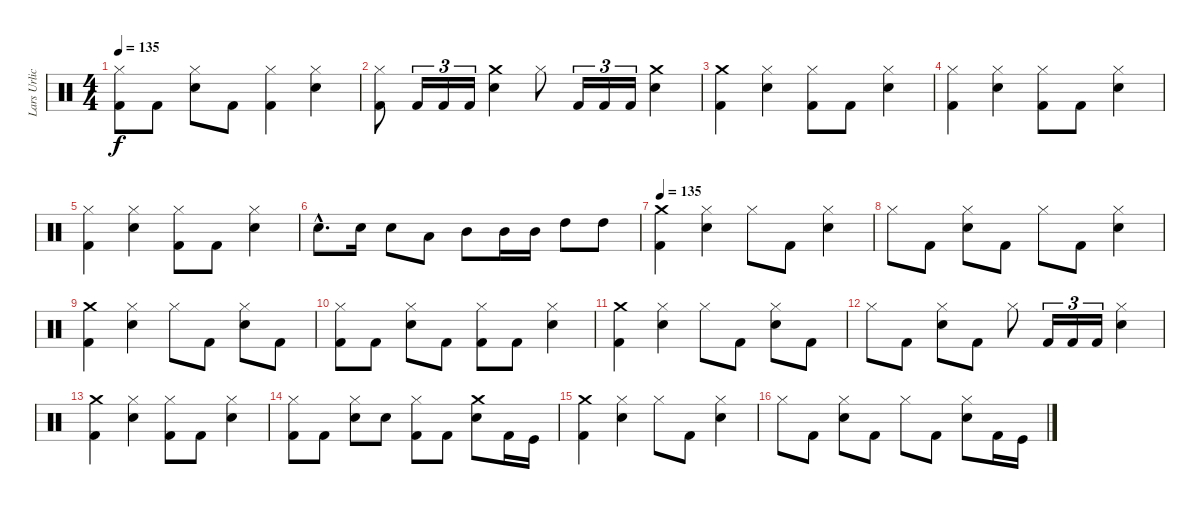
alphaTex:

\track ("Lars Urlich (drums)" "Lars Urlic") {instrument percussion}
\staff {score}
\articulation defaults
\ts (4 4)
\tempo 135
\clef neutral
\ks c
("Kick (hit) 2" "Hi-Hat (closed)").8{dy f} "Kick (hit) 2".8 ("Snare (hit) 2" "Hi-Hat (closed)").8 "Kick (hit) 2".8 ("Kick (hit) 2" "Hi-Hat (closed)").4 ("Snare (hit) 2" "Hi-Hat (closed)").4 |
("Kick (hit) 2" "Hi-Hat (closed)").8 "Kick (hit) 2".16{tu (3 2)} "Kick (hit) 2".16{tu (3 2)} "Kick (hit) 2".16{tu (3 2)} ("Snare (hit) 2" "Crash medium (hit)").4 "Hi-Hat (closed)".8 "Kick (hit) 2".16{tu (3 2)} "Kick (hit) 2".16{tu (3 2)} "Kick (hit) 2".16{tu (3 2)} ("Snare (hit) 2" "Crash medium (hit)").4 |
("Kick (hit) 2" "Crash medium (hit)").4 ("Snare (hit) 2" "Hi-Hat (closed)").4 ("Kick (hit) 2" "Hi-Hat (closed)").8 "Kick (hit) 2".8 ("Snare (hit) 2" "Hi-Hat (closed)").4 |
("Kick (hit) 2" "Hi-Hat (closed)").4 ("Snare (hit) 2" "Hi-Hat (closed)").4 ("Hi-Hat (closed)" "Kick (hit) 2").8 "Kick (hit) 2".8 ("Snare (hit) 2" "Hi-Hat (closed)").4 |
("Kick (hit) 2" "Hi-Hat (closed)").4 ("Snare (hit) 2" "Hi-Hat (closed)").4 ("Hi-Hat (closed)" "Kick (hit) 2").8 "Kick (hit) 2".8 ("Snare (hit) 2" "Hi-Hat (closed)").4 |
"Snare (hit) 2"{hac}.8{d} "Snare (hit) 2".16 "Snare (hit) 2".8 "Low Tom (hit)".8 "Mid Tom (hit)".8 "Mid Tom (hit)".16 "Mid Tom (hit)".16 "High Tom (hit)".8 "High Tom (hit)".8 |
\tempo 135
("Crash medium (hit)" "Kick (hit) 2").4 ("Snare (hit) 2" "Hi-Hat (closed)").4 "Hi-Hat (closed)".8 "Kick (hit) 2".8 ("Snare (hit) 2" "Hi-Hat (closed)").4 |
"Hi-Hat (closed)".8 "Kick (hit) 2".8 ("Snare (hit) 2" "Hi-Hat (closed)").8 "Kick (hit) 2".8 "Hi-Hat (closed)".8 "Kick (hit) 2".8 ("Snare (hit) 2" "Hi-Hat (closed)").4 |
("Kick (hit) 2" "Crash medium (hit)").4 ("Snare (hit) 2" "Hi-Hat (closed)").4 "Hi-Hat (closed)".8 "Kick (hit) 2".8 ("Snare (hit) 2" "Hi-Hat (closed)").8 "Kick (hit) 2".8 |
("Kick (hit) 2" "Hi-Hat (closed)").8 "Kick (hit) 2".8 ("Snare (hit) 2" "Hi-Hat (closed)").8 "Kick (hit) 2".8 ("Kick (hit) 2" "Hi-Hat (closed)").8 "Kick (hit) 2".8 ("Snare (hit) 2" "Hi-Hat (closed)").4 |
("Crash medium (hit)" "Kick (hit) 2").4 ("Snare (hit) 2" "Hi-Hat (closed)").4 "Hi-Hat (closed)".8 "Kick (hit) 2".8 ("Snare (hit) 2" "Hi-Hat (closed)").8 "Kick (hit) 2".8 |
"Hi-Hat (closed)".8 "Kick (hit) 2".8 ("Snare (hit) 2" "Hi-Hat (closed)").8 "Kick (hit) 2".8 "Hi-Hat (closed)".8 "Kick (hit) 2".16{tu (3 2)} "Kick (hit) 2".16{tu (3 2)} "Kick (hit) 2".16{tu (3 2)} ("Snare (hit) 2" "Hi-Hat (closed)").4 |
("Kick (hit) 2" "Crash medium (hit)").4 ("Snare (hit) 2" "Hi-Hat (closed)").4 ("Kick (hit) 2" "Hi-Hat (closed)").8 "Kick (hit) 2".8 ("Snare (hit) 2" "Hi-Hat (closed)").4 |
("Hi-Hat (closed)" "Kick (hit) 2").8 "Kick (hit) 2".8 ("Snare (hit) 2" "Hi-Hat (closed)").8 "Snare (hit) 2".8 ("Hi-Hat (closed)" "Kick (hit) 2").8 "Kick (hit) 2".8 ("Crash medium (hit)" "Snare (hit) 2").8 "Kick (hit) 2".16 "Kick (hit)".16 |
("Kick (hit) 2" "Crash medium (hit)").4 ("Hi-Hat (closed)" "Snare (hit) 2").4 "Hi-Hat (closed)".8 "Kick (hit) 2".8 ("Snare (hit) 2" "Hi-Hat (closed)").4 |
"Hi-Hat (closed)".8 "Kick (hit) 2".8 ("Snare (hit) 2" "Hi-Hat (closed)").8 "Kick (hit) 2".8 "Hi-Hat (closed)".8 "Kick (hit) 2".8 ("Snare (hit) 2" "Hi-Hat (closed)").8 "Kick (hit) 2".16 "Kick (hit)".16
